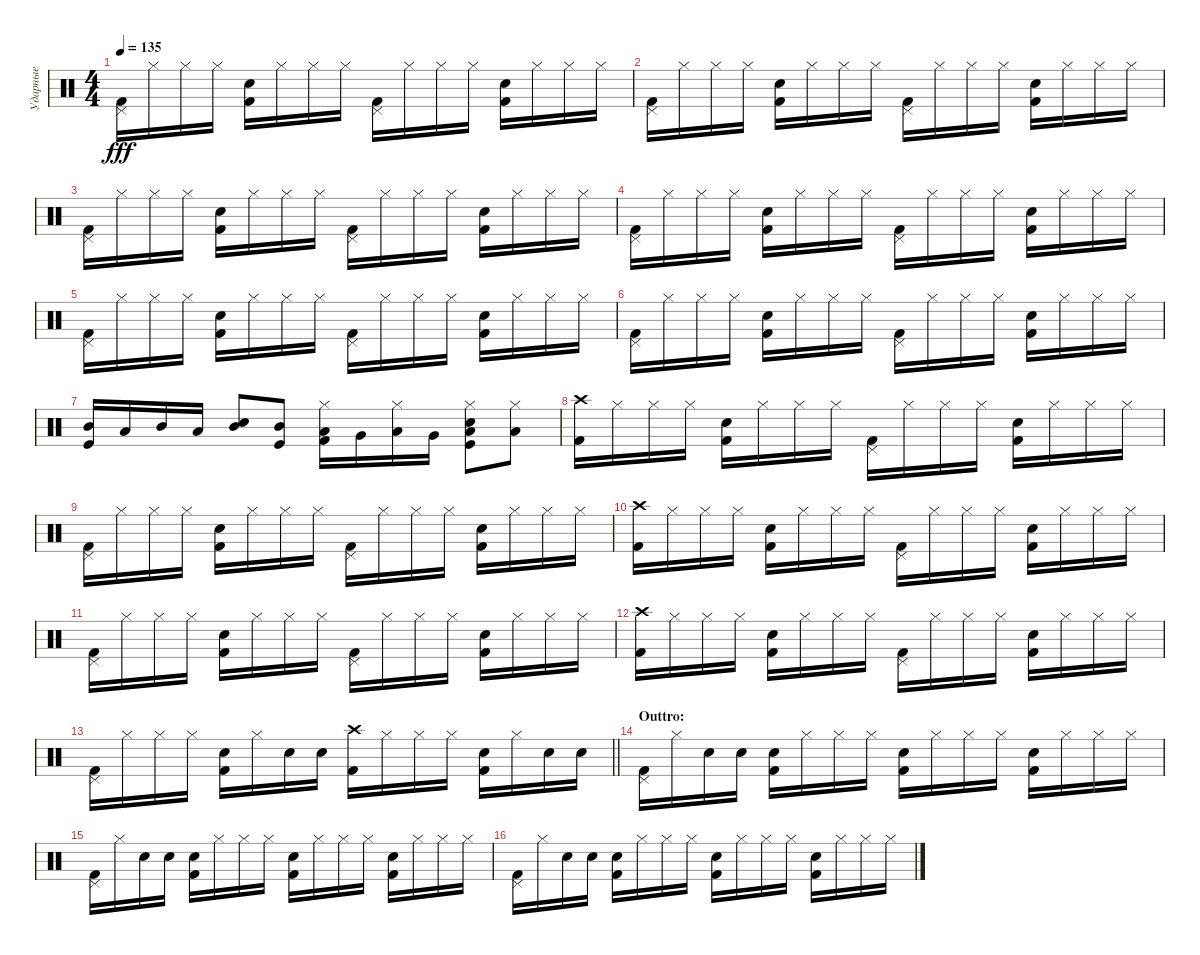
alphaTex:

\track ("Ударные" "Ударные") {instrument percussion}
\staff {score}
\articulation defaults
\ts (4 4)
\tempo 135
\clef neutral
\ks c
("Pedal Hi-Hat (hit)" "Kick (hit) 2").16{dy fff} "Hi-Hat (closed)".16 "Hi-Hat (closed)".16 "Hi-Hat (closed)".16 ("Snare (hit) 2" "Kick (hit) 2").16 "Hi-Hat (closed)".16 "Hi-Hat (closed)".16 "Hi-Hat (closed)".16 ("Pedal Hi-Hat (hit)" "Kick (hit) 2").16 "Hi-Hat (closed)".16 "Hi-Hat (closed)".16 "Hi-Hat (closed)".16 ("Snare (hit) 2" "Kick (hit) 2").16 "Hi-Hat (closed)".16 "Hi-Hat (closed)".16 "Hi-Hat (closed)".16 |
("Pedal Hi-Hat (hit)" "Kick (hit) 2").16 "Hi-Hat (closed)".16 "Hi-Hat (closed)".16 "Hi-Hat (closed)".16 ("Snare (hit) 2" "Kick (hit) 2").16 "Hi-Hat (closed)".16 "Hi-Hat (closed)".16 "Hi-Hat (closed)".16 ("Pedal Hi-Hat (hit)" "Kick (hit) 2").16 "Hi-Hat (closed)".16 "Hi-Hat (closed)".16 "Hi-Hat (closed)".16 ("Snare (hit) 2" "Kick (hit) 2").16 "Hi-Hat (closed)".16 "Hi-Hat (closed)".16 "Hi-Hat (closed)".16 |
("Pedal Hi-Hat (hit)" "Kick (hit) 2").16 "Hi-Hat (closed)".16 "Hi-Hat (closed)".16 "Hi-Hat (closed)".16 ("Snare (hit) 2" "Kick (hit) 2").16 "Hi-Hat (closed)".16 "Hi-Hat (closed)".16 "Hi-Hat (closed)".16 ("Pedal Hi-Hat (hit)" "Kick (hit) 2").16 "Hi-Hat (closed)".16 "Hi-Hat (closed)".16 "Hi-Hat (closed)".16 ("Snare (hit) 2" "Kick (hit) 2").16 "Hi-Hat (closed)".16 "Hi-Hat (closed)".16 "Hi-Hat (closed)".16 |
("Pedal Hi-Hat (hit)" "Kick (hit) 2").16 "Hi-Hat (closed)".16 "Hi-Hat (closed)".16 "Hi-Hat (closed)".16 ("Snare (hit) 2" "Kick (hit) 2").16 "Hi-Hat (closed)".16 "Hi-Hat (closed)".16 "Hi-Hat (closed)".16 ("Pedal Hi-Hat (hit)" "Kick (hit) 2").16 "Hi-Hat (closed)".16 "Hi-Hat (closed)".16 "Hi-Hat (closed)".16 ("Snare (hit) 2" "Kick (hit) 2").16 "Hi-Hat (closed)".16 "Hi-Hat (closed)".16 "Hi-Hat (closed)".16 |
("Pedal Hi-Hat (hit)" "Kick (hit) 2").16 "Hi-Hat (closed)".16 "Hi-Hat (closed)".16 "Hi-Hat (closed)".16 ("Snare (hit) 2" "Kick (hit) 2").16 "Hi-Hat (closed)".16 "Hi-Hat (closed)".16 "Hi-Hat (closed)".16 ("Pedal Hi-Hat (hit)" "Kick (hit) 2").16 "Hi-Hat (closed)".16 "Hi-Hat (closed)".16 "Hi-Hat (closed)".16 ("Snare (hit) 2" "Kick (hit) 2").16 "Hi-Hat (closed)".16 "Hi-Hat (closed)".16 "Hi-Hat (closed)".16 |
("Pedal Hi-Hat (hit)" "Kick (hit) 2").16 "Hi-Hat (closed)".16 "Hi-Hat (closed)".16 "Hi-Hat (closed)".16 ("Snare (hit) 2" "Kick (hit) 2").16 "Hi-Hat (closed)".16 "Hi-Hat (closed)".16 "Hi-Hat (closed)".16 ("Pedal Hi-Hat (hit)" "Kick (hit) 2").16 "Hi-Hat (closed)".16 "Hi-Hat (closed)".16 "Hi-Hat (closed)".16 ("Snare (hit) 2" "Kick (hit) 2").16 "Hi-Hat (closed)".16 "Hi-Hat (closed)".16 "Hi-Hat (closed)".16 |
("Mid Tom (hit)" "Kick (hit)").16 "Low Tom (hit)".16 "Mid Tom (hit)".16 "Low Tom (hit)".16 ("Snare (hit) 2" "Mid Tom (hit)").8 ("Mid Tom (hit)" "Kick (hit)").8 ("Hi-Hat (closed)" "Kick (hit) 2" "Low Tom (hit)").16 "Very Low Tom (hit)".16 ("Hi-Hat (closed)" "Low Tom (hit)").16 "Very Low Tom (hit)".16 ("Hi-Hat (closed)" "Low Tom (hit)" "Snare (hit) 2" "Kick (hit)").8 ("Hi-Hat (closed)" "Low Tom (hit)").8 |
("Crash high (hit)" "Kick (hit) 2").16 "Hi-Hat (closed)".16 "Hi-Hat (closed)".16 "Hi-Hat (closed)".16 ("Snare (hit) 2" "Kick (hit) 2").16 "Hi-Hat (closed)".16 "Hi-Hat (closed)".16 "Hi-Hat (closed)".16 ("Pedal Hi-Hat (hit)" "Kick (hit) 2").16 "Hi-Hat (closed)".16 "Hi-Hat (closed)".16 "Hi-Hat (closed)".16 ("Snare (hit) 2" "Kick (hit) 2").16 "Hi-Hat (closed)".16 "Hi-Hat (closed)".16 "Hi-Hat (closed)".16 |
("Pedal Hi-Hat (hit)" "Kick (hit) 2").16 "Hi-Hat (closed)".16 "Hi-Hat (closed)".16 "Hi-Hat (closed)".16 ("Snare (hit) 2" "Kick (hit) 2").16 "Hi-Hat (closed)".16 "Hi-Hat (closed)".16 "Hi-Hat (closed)".16 ("Pedal Hi-Hat (hit)" "Kick (hit) 2").16 "Hi-Hat (closed)".16 "Hi-Hat (closed)".16 "Hi-Hat (closed)".16 ("Snare (hit) 2" "Kick (hit) 2").16 "Hi-Hat (closed)".16 "Hi-Hat (closed)".16 "Hi-Hat (closed)".16 |
("Crash high (hit)" "Kick (hit) 2").16 "Hi-Hat (closed)".16 "Hi-Hat (closed)".16 "Hi-Hat (closed)".16 ("Snare (hit) 2" "Kick (hit) 2").16 "Hi-Hat (closed)".16 "Hi-Hat (closed)".16 "Hi-Hat (closed)".16 ("Pedal Hi-Hat (hit)" "Kick (hit) 2").16 "Hi-Hat (closed)".16 "Hi-Hat (closed)".16 "Hi-Hat (closed)".16 ("Snare (hit) 2" "Kick (hit) 2").16 "Hi-Hat (closed)".16 "Hi-Hat (closed)".16 "Hi-Hat (closed)".16 |
("Pedal Hi-Hat (hit)" "Kick (hit) 2").16 "Hi-Hat (closed)".16 "Hi-Hat (closed)".16 "Hi-Hat (closed)".16 ("Snare (hit) 2" "Kick (hit) 2").16 "Hi-Hat (closed)".16 "Hi-Hat (closed)".16 "Hi-Hat (closed)".16 ("Pedal Hi-Hat (hit)" "Kick (hit) 2").16 "Hi-Hat (closed)".16 "Hi-Hat (closed)".16 "Hi-Hat (closed)".16 ("Snare (hit) 2" "Kick (hit) 2").16 "Hi-Hat (closed)".16 "Hi-Hat (closed)".16 "Hi-Hat (closed)".16 |
("Crash high (hit)" "Kick (hit) 2").16 "Hi-Hat (closed)".16 "Hi-Hat (closed)".16 "Hi-Hat (closed)".16 ("Snare (hit) 2" "Kick (hit) 2").16 "Hi-Hat (closed)".16 "Hi-Hat (closed)".16 "Hi-Hat (closed)".16 ("Pedal Hi-Hat (hit)" "Kick (hit) 2").16 "Hi-Hat (closed)".16 "Hi-Hat (closed)".16 "Hi-Hat (closed)".16 ("Snare (hit) 2" "Kick (hit) 2").16 "Hi-Hat (closed)".16 "Hi-Hat (closed)".16 "Hi-Hat (closed)".16 |
\barLineRight lightlight
("Pedal Hi-Hat (hit)" "Kick (hit) 2").16 "Hi-Hat (closed)".16 "Hi-Hat (closed)".16 "Hi-Hat (closed)".16 ("Snare (hit) 2" "Kick (hit) 2").16 "Hi-Hat (closed)".16 "Snare (hit) 2".16 "Snare (hit) 2".16 ("Crash high (hit)" "Kick (hit) 2").16 "Hi-Hat (closed)".16 "Hi-Hat (closed)".16 "Hi-Hat (closed)".16 ("Snare (hit) 2" "Kick (hit) 2").16 "Hi-Hat (closed)".16 "Snare (hit) 2".16 "Snare (hit) 2".16 |
\section ("" "Outtro:")
("Pedal Hi-Hat (hit)" "Kick (hit) 2").16 "Hi-Hat (closed)".16 "Snare (hit) 2".16 "Snare (hit) 2".16 ("Snare (hit) 2" "Kick (hit) 2").16 "Hi-Hat (closed)".16 "Hi-Hat (closed)".16 "Hi-Hat (closed)".16 ("Snare (hit) 2" "Kick (hit) 2").16 "Hi-Hat (closed)".16 "Hi-Hat (closed)".16 "Hi-Hat (closed)".16 ("Snare (hit) 2" "Kick (hit) 2").16 "Hi-Hat (closed)".16 "Hi-Hat (closed)".16 "Hi-Hat (closed)".16 |
("Pedal Hi-Hat (hit)" "Kick (hit) 2").16 "Hi-Hat (closed)".16 "Snare (hit) 2".16 "Snare (hit) 2".16 ("Snare (hit) 2" "Kick (hit) 2").16 "Hi-Hat (closed)".16 "Hi-Hat (closed)".16 "Hi-Hat (closed)".16 ("Snare (hit) 2" "Kick (hit) 2").16 "Hi-Hat (closed)".16 "Hi-Hat (closed)".16 "Hi-Hat (closed)".16 ("Snare (hit) 2" "Kick (hit) 2").16 "Hi-Hat (closed)".16 "Hi-Hat (closed)".16 "Hi-Hat (closed)".16 |
("Pedal Hi-Hat (hit)" "Kick (hit) 2").16 "Hi-Hat (closed)".16 "Snare (hit) 2".16 "Snare (hit) 2".16 ("Snare (hit) 2" "Kick (hit) 2").16 "Hi-Hat (closed)".16 "Hi-Hat (closed)".16 "Hi-Hat (closed)".16 ("Snare (hit) 2" "Kick (hit) 2").16 "Hi-Hat (closed)".16 "Hi-Hat (closed)".16 "Hi-Hat (closed)".16 ("Snare (hit) 2" "Kick (hit) 2").16 "Hi-Hat (closed)".16 "Hi-Hat (closed)".16 "Hi-Hat (closed)".16
